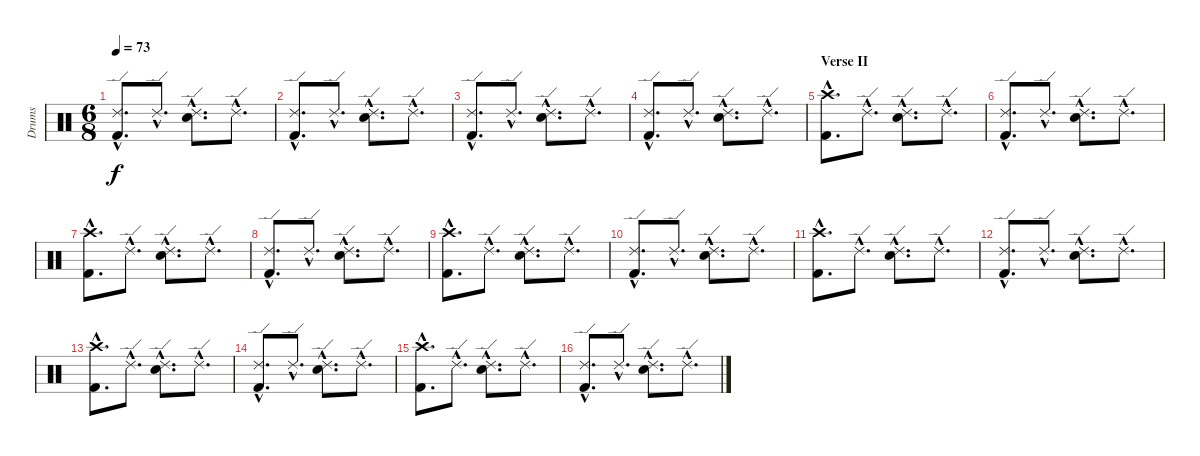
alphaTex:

\track ("Drums" "Drums") {instrument percussion}
\staff {score}
\articulation defaults
\ts (6 8)
\tempo 73
\clef neutral
\ks c
("Ride (edge) 2"{hac} "Kick (hit) 2"{hac}).8{d dy f} "Ride (edge) 2"{hac}.8{d} ("Ride (edge) 2"{hac} "Electric Snare (hit)"{hac}).8{d} "Ride (edge) 2"{hac}.8{d} |
("Ride (edge) 2"{hac} "Kick (hit) 2"{hac}).8{d} "Ride (edge) 2"{hac}.8{d} ("Ride (edge) 2"{hac} "Electric Snare (hit)"{hac}).8{d} "Ride (edge) 2"{hac}.8{d} |
("Ride (edge) 2"{hac} "Kick (hit) 2"{hac}).8{d} "Ride (edge) 2"{hac}.8{d} ("Ride (edge) 2"{hac} "Electric Snare (hit)"{hac}).8{d} "Ride (edge) 2"{hac}.8{d} |
("Ride (edge) 2"{hac} "Kick (hit) 2"{hac}).8{d} "Ride (edge) 2"{hac}.8{d} ("Ride (edge) 2"{hac} "Electric Snare (hit)"{hac}).8{d} "Ride (edge) 2"{hac}.8{d} |
\section ("" "Verse II")
("Crash high (hit)"{hac} "Kick (hit) 2"{hac}).8{d} "Ride (edge) 2"{hac}.8{d} ("Ride (edge) 2"{hac} "Electric Snare (hit)"{hac}).8{d} "Ride (edge) 2"{hac}.8{d} |
("Ride (edge) 2"{hac} "Kick (hit) 2"{hac}).8{d} "Ride (edge) 2"{hac}.8{d} ("Ride (edge) 2"{hac} "Electric Snare (hit)"{hac}).8{d} "Ride (edge) 2"{hac}.8{d} |
("Crash high (hit)"{hac} "Kick (hit) 2"{hac}).8{d} "Ride (edge) 2"{hac}.8{d} ("Ride (edge) 2"{hac} "Electric Snare (hit)"{hac}).8{d} "Ride (edge) 2"{hac}.8{d} |
("Ride (edge) 2"{hac} "Kick (hit) 2"{hac}).8{d} "Ride (edge) 2"{hac}.8{d} ("Ride (edge) 2"{hac} "Electric Snare (hit)"{hac}).8{d} "Ride (edge) 2"{hac}.8{d} |
("Crash high (hit)"{hac} "Kick (hit) 2"{hac}).8{d} "Ride (edge) 2"{hac}.8{d} ("Ride (edge) 2"{hac} "Electric Snare (hit)"{hac}).8{d} "Ride (edge) 2"{hac}.8{d} |
("Ride (edge) 2"{hac} "Kick (hit) 2"{hac}).8{d} "Ride (edge) 2"{hac}.8{d} ("Ride (edge) 2"{hac} "Electric Snare (hit)"{hac}).8{d} "Ride (edge) 2"{hac}.8{d} |
("Crash high (hit)"{hac} "Kick (hit) 2"{hac}).8{d} "Ride (edge) 2"{hac}.8{d} ("Ride (edge) 2"{hac} "Electric Snare (hit)"{hac}).8{d} "Ride (edge) 2"{hac}.8{d} |
("Ride (edge) 2"{hac} "Kick (hit) 2"{hac}).8{d} "Ride (edge) 2"{hac}.8{d} ("Ride (edge) 2"{hac} "Electric Snare (hit)"{hac}).8{d} "Ride (edge) 2"{hac}.8{d} |
("Crash high (hit)"{hac} "Kick (hit) 2"{hac}).8{d} "Ride (edge) 2"{hac}.8{d} ("Ride (edge) 2"{hac} "Electric Snare (hit)"{hac}).8{d} "Ride (edge) 2"{hac}.8{d} |
("Ride (edge) 2"{hac} "Kick (hit) 2"{hac}).8{d} "Ride (edge) 2"{hac}.8{d} ("Ride (edge) 2"{hac} "Electric Snare (hit)"{hac}).8{d} "Ride (edge) 2"{hac}.8{d} |
("Crash high (hit)"{hac} "Kick (hit) 2"{hac}).8{d} "Ride (edge) 2"{hac}.8{d} ("Ride (edge) 2"{hac} "Electric Snare (hit)"{hac}).8{d} "Ride (edge) 2"{hac}.8{d} |
("Ride (edge) 2"{hac} "Kick (hit) 2"{hac}).8{d} "Ride (edge) 2"{hac}.8{d} ("Ride (edge) 2"{hac} "Electric Snare (hit)"{hac}).8{d} "Ride (edge) 2"{hac}.8{d}
